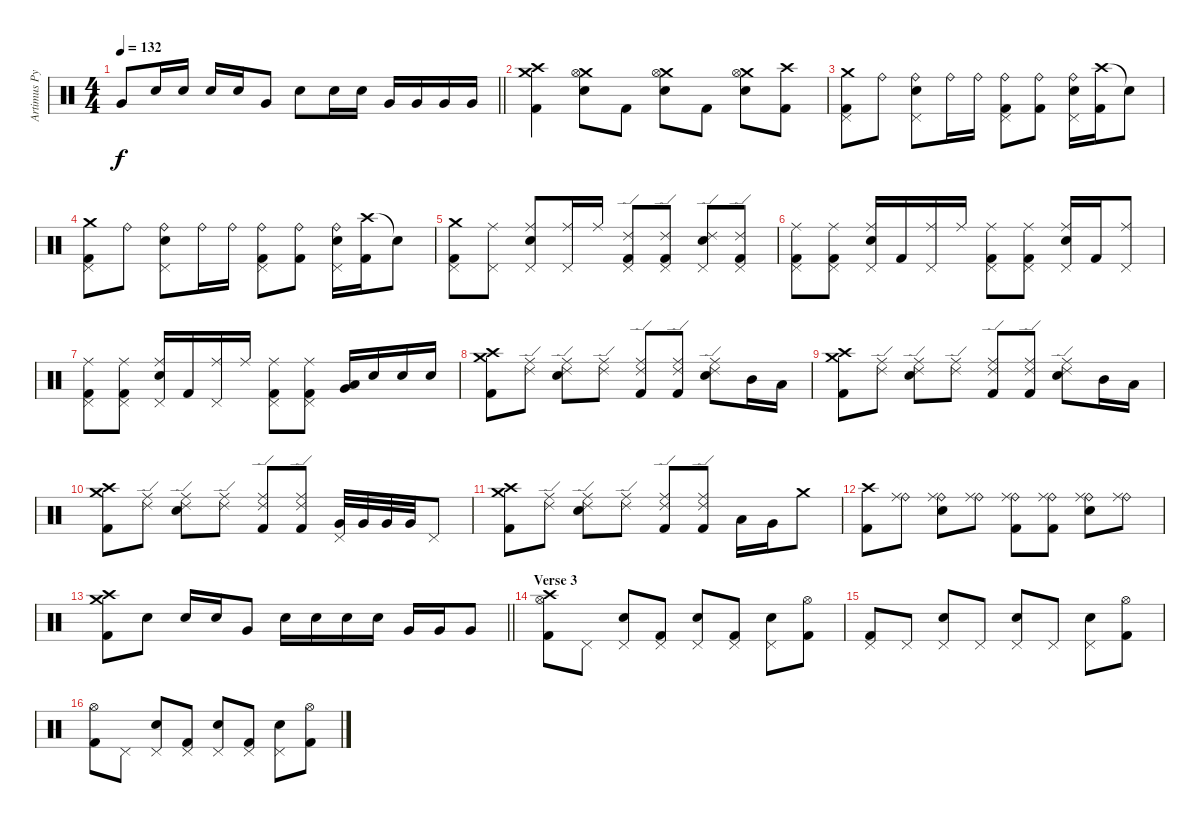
\track ("Artimus Pyle" "Artimus Py") {instrument percussion}
\staff {score}
\articulation defaults
\ts (4 4)
\tempo 132
\clef neutral
\barLineRight lightlight
\ks c "Very Low Tom (hit)".8{dy f} "Snare (hit) 2".16 "Snare (hit) 2".16 "Snare (hit) 2".16 "Snare (hit) 2".16 "Very Low Tom (hit)".8 "Snare (hit) 2".8 "Snare (hit) 2".16 "Snare (hit) 2".16 "Very Low Tom (hit)".16 "Very Low Tom (hit)".16 "Very Low Tom (hit)".16 "Very Low Tom (hit)".16
|
("Crash medium (hit)" "Crash high (hit)" "Kick (hit) 2").4 ("Crash medium (hit)" "Snare (hit) 2" "Hi-Hat (open)").8 "Kick (hit) 2".8 ("Crash medium (hit)" "Snare (hit) 2" "Hi-Hat (open)").8 "Kick (hit) 2".8 ("Crash medium (hit)" "Snare (hit) 2" "Hi-Hat (open)").8 ("Crash high (hit)" "Kick (hit) 2").8 |
("Crash medium (hit)" "Pedal Hi-Hat (hit)" "Kick (hit) 2").8 "Ride (bell)".8 ("Ride (bell)" "Snare (hit) 2" "Pedal Hi-Hat (hit)").8 "Ride (bell)".16 "Ride (bell)".16 ("Ride (bell)" "Pedal Hi-Hat (hit)" "Kick (hit) 2").8 ("Ride (bell)" "Kick (hit) 2").8 ("Ride (bell)" "Snare (hit) 2" "Pedal Hi-Hat (hit)").16 ("Crash high (hit)" "Kick (hit) 2").16 "Snare (hit)"{t}.8 |
("Crash medium (hit)" "Pedal Hi-Hat (hit)" "Kick (hit) 2").8 "Ride (bell)".8 ("Ride (bell)" "Snare (hit) 2" "Pedal Hi-Hat (hit)").8 "Ride (bell)".16 "Ride (bell)".16 ("Ride (bell)" "Pedal Hi-Hat (hit)" "Kick (hit) 2").8 ("Ride (bell)" "Kick (hit) 2").8 ("Ride (bell)" "Snare (hit) 2" "Pedal Hi-Hat (hit)").16 ("Crash high (hit)" "Kick (hit) 2").16 "Snare (hit)"{t}.8 |
("Crash medium (hit)" "Pedal Hi-Hat (hit)" "Kick (hit) 2").8 ("Ride (middle)" "Pedal Hi-Hat (hit)").8 ("Ride (middle)" "Snare (hit) 2" "Pedal Hi-Hat (hit)").8 ("Ride (middle)" "Pedal Hi-Hat (hit)").16 "Ride (middle)".16 ("Ride (edge) 2" "Pedal Hi-Hat (hit)" "Kick (hit) 2").8 ("Ride (edge) 2" "Pedal Hi-Hat (hit)" "Kick (hit) 2").8 ("Ride (edge) 2" "Snare (hit) 2" "Pedal Hi-Hat (hit)").8 ("Ride (edge) 2" "Pedal Hi-Hat (hit)" "Kick (hit) 2").8 |
("Ride (middle)" "Pedal Hi-Hat (hit)" "Kick (hit) 2").8 ("Ride (middle)" "Pedal Hi-Hat (hit)" "Kick (hit) 2").8 ("Ride (middle)" "Snare (hit) 2" "Pedal Hi-Hat (hit)").16 "Kick (hit) 2".16 ("Ride (middle)" "Pedal Hi-Hat (hit)").16 "Ride (middle)".16 ("Ride (middle)" "Pedal Hi-Hat (hit)" "Kick (hit) 2").8 ("Ride (middle)" "Pedal Hi-Hat (hit)" "Kick (hit) 2").8 ("Ride (middle)" "Snare (hit) 2" "Pedal Hi-Hat (hit)").16 "Kick (hit) 2".16 ("Ride (middle)" "Pedal Hi-Hat (hit)").8 |
("Ride (middle)" "Pedal Hi-Hat (hit)" "Kick (hit) 2").8 ("Ride (middle)" "Pedal Hi-Hat (hit)" "Kick (hit) 2").8 ("Ride (middle)" "Snare (hit) 2" "Pedal Hi-Hat (hit)").16 "Kick (hit) 2".16 ("Ride (middle)" "Pedal Hi-Hat (hit)").16 "Ride (middle)".16 ("Ride (middle)" "Pedal Hi-Hat (hit)" "Kick (hit) 2").8 ("Ride (middle)" "Pedal Hi-Hat (hit)" "Kick (hit) 2").8 ("Low Tom (hit)" "Very Low Tom (hit)").16 "Snare (hit) 2".16 "Snare (hit) 2".16 "Snare (hit) 2".16 |
("Crash medium (hit)" "Crash high (hit)" "Kick (hit) 2").8 ("Ride (middle)" "Ride (edge) 2").8 ("Ride (middle)" "Ride (edge) 2" "Snare (hit) 2").8 ("Ride (middle)" "Ride (edge) 2").8 ("Ride (middle)" "Ride (edge) 2" "Kick (hit) 2").8 ("Ride (middle)" "Ride (edge) 2" "Kick (hit) 2").8 ("Ride (middle)" "Ride (edge) 2" "Snare (hit) 2").8 "Mid Tom (hit)".16 "Low Tom (hit)".16 |
("Crash medium (hit)" "Crash high (hit)" "Kick (hit) 2").8 ("Ride (middle)" "Ride (edge) 2").8 ("Ride (middle)" "Ride (edge) 2" "Snare (hit) 2").8 ("Ride (middle)" "Ride (edge) 2").8 ("Ride (middle)" "Ride (edge) 2" "Kick (hit) 2").8 ("Ride (middle)" "Ride (edge) 2" "Kick (hit) 2").8 ("Ride (middle)" "Ride (edge) 2" "Snare (hit) 2").8 "Mid Tom (hit)".16 "Low Tom (hit)".16 |
("Crash medium (hit)" "Crash high (hit)" "Kick (hit) 2").8 ("Ride (middle)" "Ride (edge) 2").8 ("Ride (middle)" "Ride (edge) 2" "Snare (hit) 2").8 ("Ride (middle)" "Ride (edge) 2").8 ("Ride (middle)" "Ride (edge) 2" "Kick (hit) 2").8 ("Ride (middle)" "Ride (edge) 2" "Kick (hit) 2").8 ("Very Low Tom (hit)" "Pedal Hi-Hat (hit)").32 "Very Low Tom (hit)".32 "Very Low Tom (hit)".32 "Very Low Tom (hit)".32 "Pedal Hi-Hat (hit)".8 |
("Crash medium (hit)" "Crash high (hit)" "Kick (hit) 2").8 ("Ride (middle)" "Ride (edge) 2").8 ("Ride (middle)" "Ride (edge) 2" "Snare (hit) 2").8 ("Ride (middle)" "Ride (edge) 2").8 ("Ride (middle)" "Ride (edge) 2" "Kick (hit) 2").8 ("Ride (middle)" "Ride (edge) 2" "Kick (hit) 2").8 "Low Tom (hit)".16 "Very Low Tom (hit)".16 "Crash medium (hit)".8 |
("Crash high (hit)" "Kick (hit) 2").8 ("Ride (bell)" "Ride (middle)").8 ("Ride (bell)" "Ride (middle)" "Snare (hit) 2").8 ("Ride (bell)" "Ride (middle)").8 ("Ride (bell)" "Ride (middle)" "Kick (hit) 2").8 ("Ride (bell)" "Ride (middle)" "Kick (hit) 2").8 ("Ride (bell)" "Ride (middle)" "Snare (hit) 2").8 ("Ride (bell)" "Ride (middle)").8 |
\barLineRight lightlight
("Crash medium (hit)" "Crash high (hit)" "Kick (hit) 2").8 "Snare (hit) 2".8 "Snare (hit) 2".16 "Snare (hit) 2".16 "Very Low Tom (hit)".8 "Snare (hit) 2".16 "Snare (hit) 2".16 "Snare (hit) 2".16 "Snare (hit) 2".16 "Very Low Tom (hit)".16 "Very Low Tom (hit)".16 "Very Low Tom (hit)".8 |
\section ("" "Verse 3")
("Crash high (hit)" "Hi-Hat (open)" "Kick (hit) 2").8 "Pedal Hi-Hat (hit)".8 ("Snare (hit) 2" "Pedal Hi-Hat (hit)").8 ("Pedal Hi-Hat (hit)" "Kick (hit) 2").8 ("Snare (hit) 2" "Pedal Hi-Hat (hit)").8 ("Pedal Hi-Hat (hit)" "Kick (hit) 2").8 ("Snare (hit) 2" "Pedal Hi-Hat (hit)").8 ("Hi-Hat (open)" "Kick (hit) 2").8 |
("Pedal Hi-Hat (hit)" "Kick (hit) 2").8 "Pedal Hi-Hat (hit)".8 ("Snare (hit) 2" "Pedal Hi-Hat (hit)").8 "Pedal Hi-Hat (hit)".8 ("Snare (hit) 2" "Pedal Hi-Hat (hit)").8 "Pedal Hi-Hat (hit)".8 ("Snare (hit) 2" "Pedal Hi-Hat (hit)").8 ("Hi-Hat (open)" "Kick (hit) 2").8 |
("Hi-Hat (open)" "Kick (hit) 2").8 "Pedal Hi-Hat (hit)".8 ("Snare (hit) 2" "Pedal Hi-Hat (hit)").8 ("Pedal Hi-Hat (hit)" "Kick (hit) 2").8 ("Snare (hit) 2" "Pedal Hi-Hat (hit)").8 ("Pedal Hi-Hat (hit)" "Kick (hit) 2").8 ("Snare (hit) 2" "Pedal Hi-Hat (hit)").8 ("Hi-Hat (open)" "Kick (hit) 2").8
